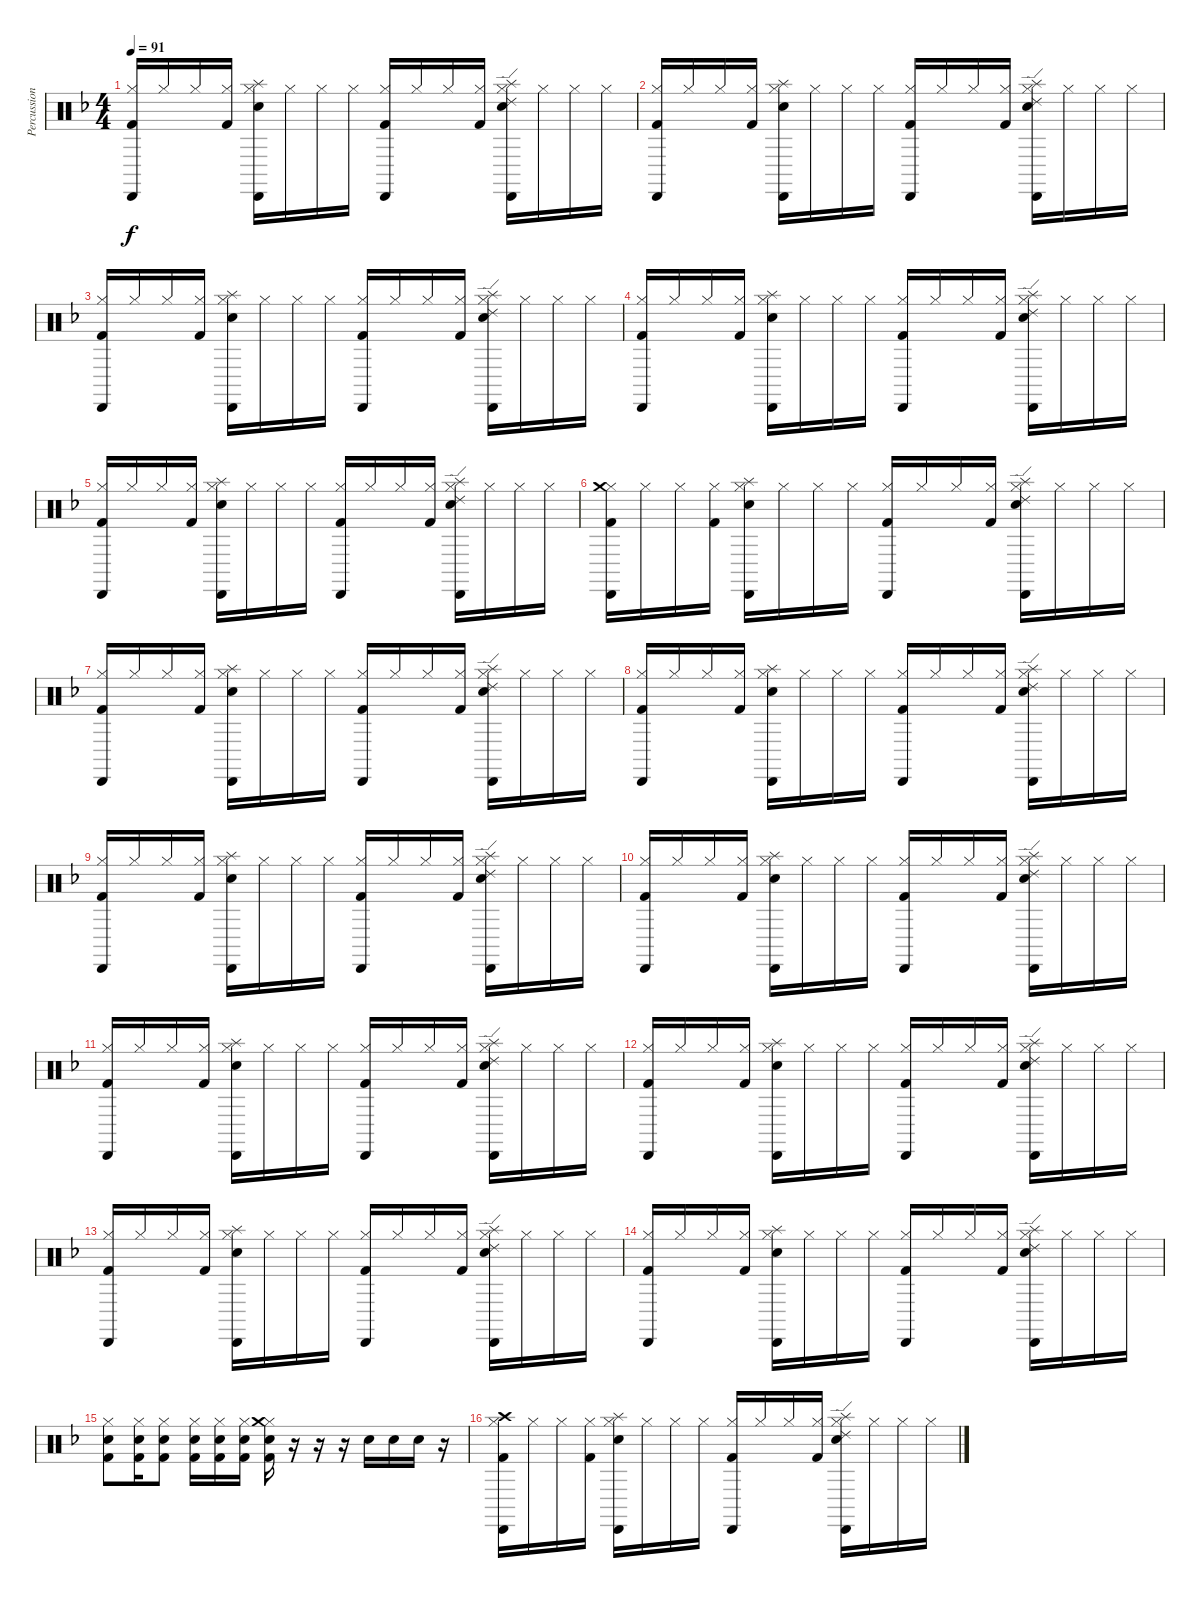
\track ("Percussion" "Percussion") {instrument percussion}
\staff {score}
\articulation defaults
\ts (4 4)
\tempo 91
\clef neutral
\ks dminor
("Hi-Hat (closed)" "Kick (hit) 2" "Cabasa (hit)").16{dy f volume 12} "Hi-Hat (closed)".16 "Hi-Hat (closed)".16 ("Hi-Hat (closed)" "Kick (hit) 2").16 ("Hi-Hat (closed)" "Snare (hit) 2" "Cabasa (hit)" "Splash (hit)").16 "Hi-Hat (closed)".16 "Hi-Hat (closed)".16 "Hi-Hat (closed)".16 ("Hi-Hat (closed)" "Kick (hit) 2" "Cabasa (hit)").16 "Hi-Hat (closed)".16 "Hi-Hat (closed)".16 ("Hi-Hat (closed)" "Kick (hit) 2").16 ("Hi-Hat (closed)" "Snare (hit) 2" "Cabasa (hit)" "Ride (edge) 2" "Splash (hit)").16 "Hi-Hat (closed)".16 "Hi-Hat (closed)".16 "Hi-Hat (closed)".16 |
("Hi-Hat (closed)" "Kick (hit) 2" "Cabasa (hit)").16{volume 12} "Hi-Hat (closed)".16 "Hi-Hat (closed)".16 ("Hi-Hat (closed)" "Kick (hit) 2").16 ("Hi-Hat (closed)" "Snare (hit) 2" "Cabasa (hit)" "Splash (hit)").16 "Hi-Hat (closed)".16 "Hi-Hat (closed)".16 "Hi-Hat (closed)".16 ("Hi-Hat (closed)" "Kick (hit) 2" "Cabasa (hit)").16 "Hi-Hat (closed)".16 "Hi-Hat (closed)".16 ("Hi-Hat (closed)" "Kick (hit) 2").16 ("Hi-Hat (closed)" "Snare (hit) 2" "Cabasa (hit)" "Ride (edge) 2" "Splash (hit)").16 "Hi-Hat (closed)".16 "Hi-Hat (closed)".16 "Hi-Hat (closed)".16 |
("Hi-Hat (closed)" "Kick (hit) 2" "Cabasa (hit)").16{volume 12} "Hi-Hat (closed)".16 "Hi-Hat (closed)".16 ("Hi-Hat (closed)" "Kick (hit) 2").16 ("Hi-Hat (closed)" "Snare (hit) 2" "Cabasa (hit)" "Splash (hit)").16 "Hi-Hat (closed)".16 "Hi-Hat (closed)".16 "Hi-Hat (closed)".16 ("Hi-Hat (closed)" "Kick (hit) 2" "Cabasa (hit)").16 "Hi-Hat (closed)".16 "Hi-Hat (closed)".16 ("Hi-Hat (closed)" "Kick (hit) 2").16 ("Hi-Hat (closed)" "Snare (hit) 2" "Cabasa (hit)" "Ride (edge) 2" "Splash (hit)").16 "Hi-Hat (closed)".16 "Hi-Hat (closed)".16 "Hi-Hat (closed)".16 |
("Hi-Hat (closed)" "Kick (hit) 2" "Cabasa (hit)").16{volume 12} "Hi-Hat (closed)".16 "Hi-Hat (closed)".16 ("Hi-Hat (closed)" "Kick (hit) 2").16 ("Hi-Hat (closed)" "Snare (hit) 2" "Cabasa (hit)" "Splash (hit)").16 "Hi-Hat (closed)".16 "Hi-Hat (closed)".16 "Hi-Hat (closed)".16 ("Hi-Hat (closed)" "Kick (hit) 2" "Cabasa (hit)").16 "Hi-Hat (closed)".16 "Hi-Hat (closed)".16 ("Hi-Hat (closed)" "Kick (hit) 2").16 ("Hi-Hat (closed)" "Snare (hit) 2" "Cabasa (hit)" "Ride (edge) 2" "Splash (hit)").16 "Hi-Hat (closed)".16 "Hi-Hat (closed)".16 "Hi-Hat (closed)".16 |
("Hi-Hat (closed)" "Kick (hit) 2" "Cabasa (hit)").16{volume 12} "Hi-Hat (closed)".16 "Hi-Hat (closed)".16 ("Hi-Hat (closed)" "Kick (hit) 2").16 ("Hi-Hat (closed)" "Snare (hit) 2" "Cabasa (hit)" "Splash (hit)").16 "Hi-Hat (closed)".16 "Hi-Hat (closed)".16 "Hi-Hat (closed)".16 ("Hi-Hat (closed)" "Kick (hit) 2" "Cabasa (hit)").16 "Hi-Hat (closed)".16 "Hi-Hat (closed)".16 ("Hi-Hat (closed)" "Kick (hit) 2").16 ("Hi-Hat (closed)" "Snare (hit) 2" "Cabasa (hit)" "Ride (edge) 2" "Splash (hit)").16 "Hi-Hat (closed)".16 "Hi-Hat (closed)".16 "Hi-Hat (closed)".16 |
("Hi-Hat (closed)" "Kick (hit) 2" "Cabasa (hit)" "Crash medium (hit)").16{volume 12} "Hi-Hat (closed)".16 "Hi-Hat (closed)".16 ("Hi-Hat (closed)" "Kick (hit) 2").16 ("Hi-Hat (closed)" "Snare (hit) 2" "Cabasa (hit)" "Splash (hit)").16 "Hi-Hat (closed)".16 "Hi-Hat (closed)".16 "Hi-Hat (closed)".16 ("Hi-Hat (closed)" "Kick (hit) 2" "Cabasa (hit)").16 "Hi-Hat (closed)".16 "Hi-Hat (closed)".16 ("Hi-Hat (closed)" "Kick (hit) 2").16 ("Hi-Hat (closed)" "Snare (hit) 2" "Cabasa (hit)" "Ride (edge) 2" "Splash (hit)").16 "Hi-Hat (closed)".16 "Hi-Hat (closed)".16 "Hi-Hat (closed)".16 |
("Hi-Hat (closed)" "Kick (hit) 2" "Cabasa (hit)").16{volume 12} "Hi-Hat (closed)".16 "Hi-Hat (closed)".16 ("Hi-Hat (closed)" "Kick (hit) 2").16 ("Hi-Hat (closed)" "Snare (hit) 2" "Cabasa (hit)" "Splash (hit)").16 "Hi-Hat (closed)".16 "Hi-Hat (closed)".16 "Hi-Hat (closed)".16 ("Hi-Hat (closed)" "Kick (hit) 2" "Cabasa (hit)").16 "Hi-Hat (closed)".16 "Hi-Hat (closed)".16 ("Hi-Hat (closed)" "Kick (hit) 2").16 ("Hi-Hat (closed)" "Snare (hit) 2" "Cabasa (hit)" "Ride (edge) 2" "Splash (hit)").16 "Hi-Hat (closed)".16 "Hi-Hat (closed)".16 "Hi-Hat (closed)".16 |
("Hi-Hat (closed)" "Kick (hit) 2" "Cabasa (hit)").16{volume 12} "Hi-Hat (closed)".16 "Hi-Hat (closed)".16 ("Hi-Hat (closed)" "Kick (hit) 2").16 ("Hi-Hat (closed)" "Snare (hit) 2" "Cabasa (hit)" "Splash (hit)").16 "Hi-Hat (closed)".16 "Hi-Hat (closed)".16 "Hi-Hat (closed)".16 ("Hi-Hat (closed)" "Kick (hit) 2" "Cabasa (hit)").16 "Hi-Hat (closed)".16 "Hi-Hat (closed)".16 ("Hi-Hat (closed)" "Kick (hit) 2").16 ("Hi-Hat (closed)" "Snare (hit) 2" "Cabasa (hit)" "Ride (edge) 2" "Splash (hit)").16 "Hi-Hat (closed)".16 "Hi-Hat (closed)".16 "Hi-Hat (closed)".16 |
("Hi-Hat (closed)" "Kick (hit) 2" "Cabasa (hit)").16{volume 12} "Hi-Hat (closed)".16 "Hi-Hat (closed)".16 ("Hi-Hat (closed)" "Kick (hit) 2").16 ("Hi-Hat (closed)" "Snare (hit) 2" "Cabasa (hit)" "Splash (hit)").16 "Hi-Hat (closed)".16 "Hi-Hat (closed)".16 "Hi-Hat (closed)".16 ("Hi-Hat (closed)" "Kick (hit) 2" "Cabasa (hit)").16 "Hi-Hat (closed)".16 "Hi-Hat (closed)".16 ("Hi-Hat (closed)" "Kick (hit) 2").16 ("Hi-Hat (closed)" "Snare (hit) 2" "Cabasa (hit)" "Ride (edge) 2" "Splash (hit)").16 "Hi-Hat (closed)".16 "Hi-Hat (closed)".16 "Hi-Hat (closed)".16 |
("Hi-Hat (closed)" "Kick (hit) 2" "Cabasa (hit)").16{volume 12} "Hi-Hat (closed)".16 "Hi-Hat (closed)".16 ("Hi-Hat (closed)" "Kick (hit) 2").16 ("Hi-Hat (closed)" "Snare (hit) 2" "Cabasa (hit)" "Splash (hit)").16 "Hi-Hat (closed)".16 "Hi-Hat (closed)".16 "Hi-Hat (closed)".16 ("Hi-Hat (closed)" "Kick (hit) 2" "Cabasa (hit)").16 "Hi-Hat (closed)".16 "Hi-Hat (closed)".16 ("Hi-Hat (closed)" "Kick (hit) 2").16 ("Hi-Hat (closed)" "Snare (hit) 2" "Cabasa (hit)" "Ride (edge) 2" "Splash (hit)").16 "Hi-Hat (closed)".16 "Hi-Hat (closed)".16 "Hi-Hat (closed)".16 |
("Hi-Hat (closed)" "Kick (hit) 2" "Cabasa (hit)").16{volume 12} "Hi-Hat (closed)".16 "Hi-Hat (closed)".16 ("Hi-Hat (closed)" "Kick (hit) 2").16 ("Hi-Hat (closed)" "Snare (hit) 2" "Cabasa (hit)" "Splash (hit)").16 "Hi-Hat (closed)".16 "Hi-Hat (closed)".16 "Hi-Hat (closed)".16 ("Hi-Hat (closed)" "Kick (hit) 2" "Cabasa (hit)").16 "Hi-Hat (closed)".16 "Hi-Hat (closed)".16 ("Hi-Hat (closed)" "Kick (hit) 2").16 ("Hi-Hat (closed)" "Snare (hit) 2" "Cabasa (hit)" "Ride (edge) 2" "Splash (hit)").16 "Hi-Hat (closed)".16 "Hi-Hat (closed)".16 "Hi-Hat (closed)".16 |
("Hi-Hat (closed)" "Kick (hit) 2" "Cabasa (hit)").16{volume 12} "Hi-Hat (closed)".16 "Hi-Hat (closed)".16 ("Hi-Hat (closed)" "Kick (hit) 2").16 ("Hi-Hat (closed)" "Snare (hit) 2" "Cabasa (hit)" "Splash (hit)").16 "Hi-Hat (closed)".16 "Hi-Hat (closed)".16 "Hi-Hat (closed)".16 ("Hi-Hat (closed)" "Kick (hit) 2" "Cabasa (hit)").16 "Hi-Hat (closed)".16 "Hi-Hat (closed)".16 ("Hi-Hat (closed)" "Kick (hit) 2").16 ("Hi-Hat (closed)" "Snare (hit) 2" "Cabasa (hit)" "Ride (edge) 2" "Splash (hit)").16 "Hi-Hat (closed)".16 "Hi-Hat (closed)".16 "Hi-Hat (closed)".16 |
("Hi-Hat (closed)" "Kick (hit) 2" "Cabasa (hit)").16{volume 12} "Hi-Hat (closed)".16 "Hi-Hat (closed)".16 ("Hi-Hat (closed)" "Kick (hit) 2").16 ("Hi-Hat (closed)" "Snare (hit) 2" "Cabasa (hit)" "Splash (hit)").16 "Hi-Hat (closed)".16 "Hi-Hat (closed)".16 "Hi-Hat (closed)".16 ("Hi-Hat (closed)" "Kick (hit) 2" "Cabasa (hit)").16 "Hi-Hat (closed)".16 "Hi-Hat (closed)".16 ("Hi-Hat (closed)" "Kick (hit) 2").16 ("Hi-Hat (closed)" "Snare (hit) 2" "Cabasa (hit)" "Ride (edge) 2" "Splash (hit)").16 "Hi-Hat (closed)".16 "Hi-Hat (closed)".16 "Hi-Hat (closed)".16 |
("Hi-Hat (closed)" "Kick (hit) 2" "Cabasa (hit)").16{volume 12} "Hi-Hat (closed)".16 "Hi-Hat (closed)".16 ("Hi-Hat (closed)" "Kick (hit) 2").16 ("Hi-Hat (closed)" "Snare (hit) 2" "Cabasa (hit)" "Splash (hit)").16 "Hi-Hat (closed)".16 "Hi-Hat (closed)".16 "Hi-Hat (closed)".16 ("Hi-Hat (closed)" "Kick (hit) 2" "Cabasa (hit)").16 "Hi-Hat (closed)".16 "Hi-Hat (closed)".16 ("Hi-Hat (closed)" "Kick (hit) 2").16 ("Hi-Hat (closed)" "Snare (hit) 2" "Cabasa (hit)" "Ride (edge) 2" "Splash (hit)").16 "Hi-Hat (closed)".16 "Hi-Hat (closed)".16 "Hi-Hat (closed)".16 |
("Hi-Hat (closed)" "Kick (hit) 2" "Snare (hit) 2").8{volume 12} ("Hi-Hat (closed)" "Kick (hit) 2" "Snare (hit) 2").16 ("Hi-Hat (closed)" "Kick (hit) 2" "Snare (hit) 2").8 ("Hi-Hat (closed)" "Kick (hit) 2" "Snare (hit) 2").16 ("Hi-Hat (closed)" "Kick (hit) 2" "Snare (hit) 2").16 ("Hi-Hat (closed)" "Kick (hit) 2" "Snare (hit) 2").16 ("Hi-Hat (closed)" "Kick (hit) 2" "Snare (hit) 2" "Crash medium (hit)").16 r.16 r.16 r.16 "Snare (hit) 2".16 "Snare (hit) 2".16 "Snare (hit) 2".16 r.16 |
("Hi-Hat (closed)" "Kick (hit) 2" "Cabasa (hit)" "Crash high (hit)").16{volume 12} "Hi-Hat (closed)".16 "Hi-Hat (closed)".16 ("Hi-Hat (closed)" "Kick (hit) 2").16 ("Hi-Hat (closed)" "Snare (hit) 2" "Cabasa (hit)" "Splash (hit)").16 "Hi-Hat (closed)".16 "Hi-Hat (closed)".16 "Hi-Hat (closed)".16 ("Hi-Hat (closed)" "Kick (hit) 2" "Cabasa (hit)").16 "Hi-Hat (closed)".16 "Hi-Hat (closed)".16 ("Hi-Hat (closed)" "Kick (hit) 2").16 ("Hi-Hat (closed)" "Snare (hit) 2" "Cabasa (hit)" "Ride (edge) 2" "Splash (hit)").16 "Hi-Hat (closed)".16 "Hi-Hat (closed)".16 "Hi-Hat (closed)".16
